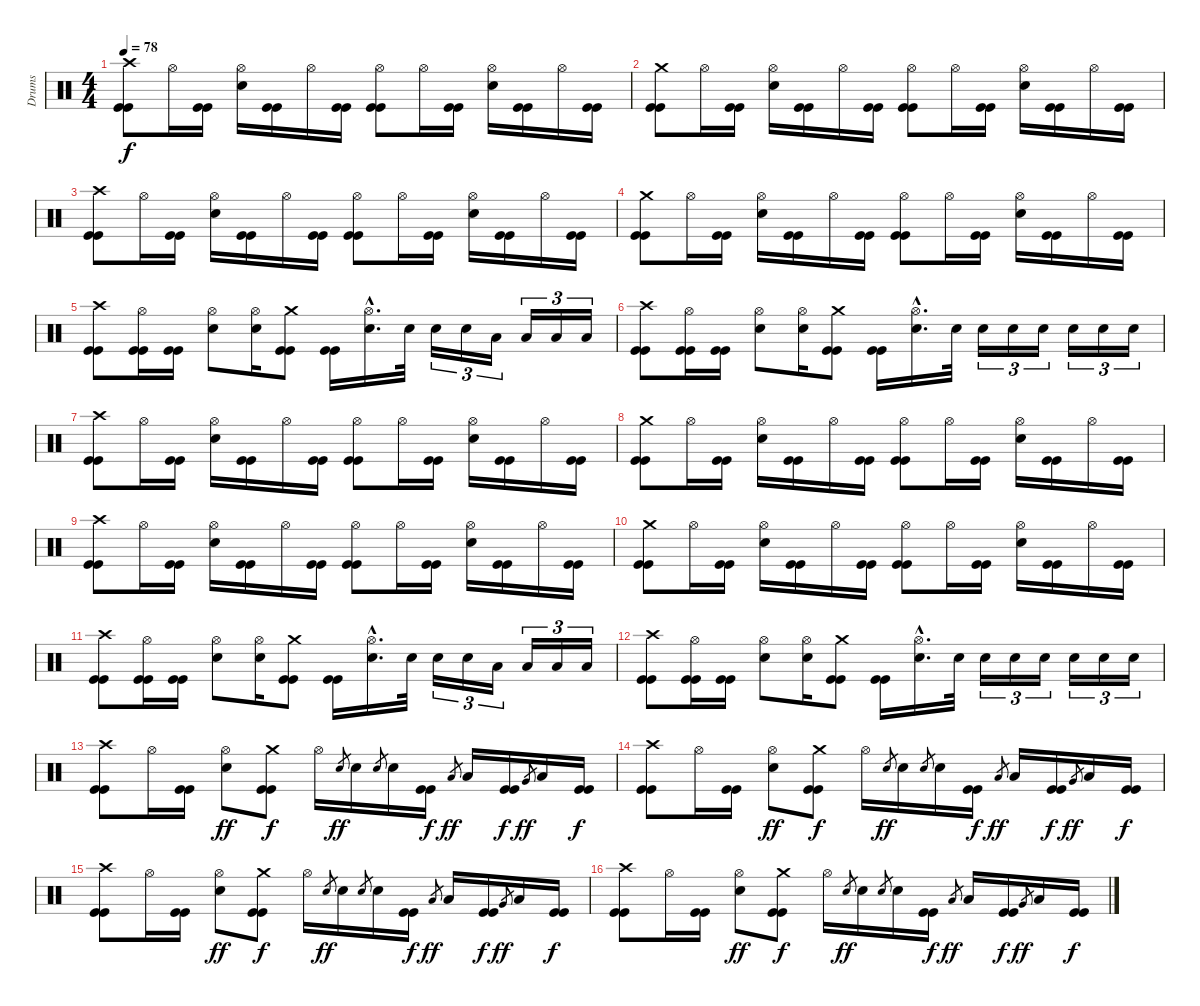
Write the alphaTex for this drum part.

\track ("Drums" "Drums") {instrument percussion}
\staff {score}
\articulation defaults
\ts (4 4)
\tempo 78
\clef neutral
\ks c
("Crash high (hit)" "Kick (hit)" "Kick (hit)").8{dy f} "Hi-Hat (open)".16 ("Kick (hit)" "Kick (hit)").16 ("Hi-Hat (open)" "Electric Snare (hit)").16 ("Kick (hit)" "Kick (hit)").16 "Hi-Hat (open)".16 ("Kick (hit)" "Kick (hit)").16 ("Hi-Hat (open)" "Kick (hit)" "Kick (hit)").8 "Hi-Hat (open)".16 ("Kick (hit)" "Kick (hit)").16 ("Hi-Hat (open)" "Electric Snare (hit)").16 ("Kick (hit)" "Kick (hit)").16 "Hi-Hat (open)".16 ("Kick (hit)" "Kick (hit)").16 |
("Crash medium (hit)" "Kick (hit)" "Kick (hit)").8 "Hi-Hat (open)".16 ("Kick (hit)" "Kick (hit)").16 ("Hi-Hat (open)" "Electric Snare (hit)").16 ("Kick (hit)" "Kick (hit)").16 "Hi-Hat (open)".16 ("Kick (hit)" "Kick (hit)").16 ("Hi-Hat (open)" "Kick (hit)" "Kick (hit)").8 "Hi-Hat (open)".16 ("Kick (hit)" "Kick (hit)").16 ("Hi-Hat (open)" "Electric Snare (hit)").16 ("Kick (hit)" "Kick (hit)").16 "Hi-Hat (open)".16 ("Kick (hit)" "Kick (hit)").16 |
("Crash high (hit)" "Kick (hit)" "Kick (hit)").8 "Hi-Hat (open)".16 ("Kick (hit)" "Kick (hit)").16 ("Hi-Hat (open)" "Electric Snare (hit)").16 ("Kick (hit)" "Kick (hit)").16 "Hi-Hat (open)".16 ("Kick (hit)" "Kick (hit)").16 ("Hi-Hat (open)" "Kick (hit)" "Kick (hit)").8 "Hi-Hat (open)".16 ("Kick (hit)" "Kick (hit)").16 ("Hi-Hat (open)" "Electric Snare (hit)").16 ("Kick (hit)" "Kick (hit)").16 "Hi-Hat (open)".16 ("Kick (hit)" "Kick (hit)").16 |
("Crash medium (hit)" "Kick (hit)" "Kick (hit)").8 "Hi-Hat (open)".16 ("Kick (hit)" "Kick (hit)").16 ("Hi-Hat (open)" "Electric Snare (hit)").16 ("Kick (hit)" "Kick (hit)").16 "Hi-Hat (open)".16 ("Kick (hit)" "Kick (hit)").16 ("Hi-Hat (open)" "Kick (hit)" "Kick (hit)").8 "Hi-Hat (open)".16 ("Kick (hit)" "Kick (hit)").16 ("Hi-Hat (open)" "Electric Snare (hit)").16 ("Kick (hit)" "Kick (hit)").16 "Hi-Hat (open)".16 ("Kick (hit)" "Kick (hit)").16 |
("Crash high (hit)" "Kick (hit)" "Kick (hit)").8 ("Hi-Hat (open)" "Kick (hit)" "Kick (hit)").16 ("Kick (hit)" "Kick (hit)").16 ("Hi-Hat (open)" "Electric Snare (hit)").8 ("Hi-Hat (open)" "Electric Snare (hit)").16 ("Crash medium (hit)" "Kick (hit)" "Kick (hit)").8 ("Kick (hit)" "Kick (hit)").16 ("Hi-Hat (open)"{hac} "Electric Snare (hit)"{hac}).16{d} "Electric Snare (hit)".32 "Electric Snare (hit)".16{tu (3 2)} "Electric Snare (hit)".16{tu (3 2)} "Low Tom (hit)".16{tu (3 2)} "Low Floor Tom (hit)".16{tu (3 2)} "Low Floor Tom (hit)".16{tu (3 2)} "Low Floor Tom (hit)".16{tu (3 2)} |
("Crash high (hit)" "Kick (hit)" "Kick (hit)").8 ("Hi-Hat (open)" "Kick (hit)" "Kick (hit)").16 ("Kick (hit)" "Kick (hit)").16 ("Hi-Hat (open)" "Electric Snare (hit)").8 ("Hi-Hat (open)" "Electric Snare (hit)").16 ("Crash medium (hit)" "Kick (hit)" "Kick (hit)").8 ("Kick (hit)" "Kick (hit)").16 ("Hi-Hat (open)"{hac} "Electric Snare (hit)"{hac}).16{d} "Electric Snare (hit)".32 "Electric Snare (hit)".16{tu (3 2)} "Electric Snare (hit)".16{tu (3 2)} "Electric Snare (hit)".16{tu (3 2)} "Electric Snare (hit)".16{tu (3 2)} "Electric Snare (hit)".16{tu (3 2)} "Electric Snare (hit)".16{tu (3 2)} |
("Crash high (hit)" "Kick (hit)" "Kick (hit)").8 "Hi-Hat (open)".16 ("Kick (hit)" "Kick (hit)").16 ("Hi-Hat (open)" "Electric Snare (hit)").16 ("Kick (hit)" "Kick (hit)").16 "Hi-Hat (open)".16 ("Kick (hit)" "Kick (hit)").16 ("Hi-Hat (open)" "Kick (hit)" "Kick (hit)").8 "Hi-Hat (open)".16 ("Kick (hit)" "Kick (hit)").16 ("Hi-Hat (open)" "Electric Snare (hit)").16 ("Kick (hit)" "Kick (hit)").16 "Hi-Hat (open)".16 ("Kick (hit)" "Kick (hit)").16 |
("Crash medium (hit)" "Kick (hit)" "Kick (hit)").8 "Hi-Hat (open)".16 ("Kick (hit)" "Kick (hit)").16 ("Hi-Hat (open)" "Electric Snare (hit)").16 ("Kick (hit)" "Kick (hit)").16 "Hi-Hat (open)".16 ("Kick (hit)" "Kick (hit)").16 ("Hi-Hat (open)" "Kick (hit)" "Kick (hit)").8 "Hi-Hat (open)".16 ("Kick (hit)" "Kick (hit)").16 ("Hi-Hat (open)" "Electric Snare (hit)").16 ("Kick (hit)" "Kick (hit)").16 "Hi-Hat (open)".16 ("Kick (hit)" "Kick (hit)").16 |
("Crash high (hit)" "Kick (hit)" "Kick (hit)").8 "Hi-Hat (open)".16 ("Kick (hit)" "Kick (hit)").16 ("Hi-Hat (open)" "Electric Snare (hit)").16 ("Kick (hit)" "Kick (hit)").16 "Hi-Hat (open)".16 ("Kick (hit)" "Kick (hit)").16 ("Hi-Hat (open)" "Kick (hit)" "Kick (hit)").8 "Hi-Hat (open)".16 ("Kick (hit)" "Kick (hit)").16 ("Hi-Hat (open)" "Electric Snare (hit)").16 ("Kick (hit)" "Kick (hit)").16 "Hi-Hat (open)".16 ("Kick (hit)" "Kick (hit)").16 |
("Crash medium (hit)" "Kick (hit)" "Kick (hit)").8 "Hi-Hat (open)".16 ("Kick (hit)" "Kick (hit)").16 ("Hi-Hat (open)" "Electric Snare (hit)").16 ("Kick (hit)" "Kick (hit)").16 "Hi-Hat (open)".16 ("Kick (hit)" "Kick (hit)").16 ("Hi-Hat (open)" "Kick (hit)" "Kick (hit)").8 "Hi-Hat (open)".16 ("Kick (hit)" "Kick (hit)").16 ("Hi-Hat (open)" "Electric Snare (hit)").16 ("Kick (hit)" "Kick (hit)").16 "Hi-Hat (open)".16 ("Kick (hit)" "Kick (hit)").16 |
("Crash high (hit)" "Kick (hit)" "Kick (hit)").8 ("Hi-Hat (open)" "Kick (hit)" "Kick (hit)").16 ("Kick (hit)" "Kick (hit)").16 ("Hi-Hat (open)" "Electric Snare (hit)").8 ("Hi-Hat (open)" "Electric Snare (hit)").16 ("Crash medium (hit)" "Kick (hit)" "Kick (hit)").8 ("Kick (hit)" "Kick (hit)").16 ("Hi-Hat (open)"{hac} "Electric Snare (hit)"{hac}).16{d} "Electric Snare (hit)".32 "Electric Snare (hit)".16{tu (3 2)} "Electric Snare (hit)".16{tu (3 2)} "Low Tom (hit)".16{tu (3 2)} "Low Floor Tom (hit)".16{tu (3 2)} "Low Floor Tom (hit)".16{tu (3 2)} "Low Floor Tom (hit)".16{tu (3 2)} |
("Crash high (hit)" "Kick (hit)" "Kick (hit)").8 ("Hi-Hat (open)" "Kick (hit)" "Kick (hit)").16 ("Kick (hit)" "Kick (hit)").16 ("Hi-Hat (open)" "Electric Snare (hit)").8 ("Hi-Hat (open)" "Electric Snare (hit)").16 ("Crash medium (hit)" "Kick (hit)" "Kick (hit)").8 ("Kick (hit)" "Kick (hit)").16 ("Hi-Hat (open)"{hac} "Electric Snare (hit)"{hac}).16{d} "Electric Snare (hit)".32 "Electric Snare (hit)".16{tu (3 2)} "Electric Snare (hit)".16{tu (3 2)} "Electric Snare (hit)".16{tu (3 2)} "Electric Snare (hit)".16{tu (3 2)} "Electric Snare (hit)".16{tu (3 2)} "Electric Snare (hit)".16{tu (3 2)} |
("Crash high (hit)" "Kick (hit)" "Kick (hit)").8 "Hi-Hat (open)".16 ("Kick (hit)" "Kick (hit)").16 ("Hi-Hat (open)" "Electric Snare (hit)").8{dy ff} ("Crash medium (hit)" "Kick (hit)" "Kick (hit)").8{dy f} "Hi-Hat (open)".16 "Electric Snare (hit)".8{gr dy ff} "Electric Snare (hit)".16 "Electric Snare (hit)".8{gr} "Electric Snare (hit)".16 ("Kick (hit)" "Kick (hit)").16{dy f} "Low Tom (hit)".8{gr dy ff} "Low Tom (hit)".16 ("Kick (hit)" "Kick (hit)").16{dy f} "Very Low Tom (hit)".8{gr dy ff} "Low Floor Tom (hit)".16 ("Kick (hit)" "Kick (hit)").16{dy f} |
("Crash high (hit)" "Kick (hit)" "Kick (hit)").8 "Hi-Hat (open)".16 ("Kick (hit)" "Kick (hit)").16 ("Hi-Hat (open)" "Electric Snare (hit)").8{dy ff} ("Crash medium (hit)" "Kick (hit)" "Kick (hit)").8{dy f} "Hi-Hat (open)".16 "Electric Snare (hit)".8{gr dy ff} "Electric Snare (hit)".16 "Electric Snare (hit)".8{gr} "Electric Snare (hit)".16 ("Kick (hit)" "Kick (hit)").16{dy f} "Low Tom (hit)".8{gr dy ff} "Low Tom (hit)".16 ("Kick (hit)" "Kick (hit)").16{dy f} "Very Low Tom (hit)".8{gr dy ff} "Low Floor Tom (hit)".16 ("Kick (hit)" "Kick (hit)").16{dy f} |
("Crash high (hit)" "Kick (hit)" "Kick (hit)").8 "Hi-Hat (open)".16 ("Kick (hit)" "Kick (hit)").16 ("Hi-Hat (open)" "Electric Snare (hit)").8{dy ff} ("Crash medium (hit)" "Kick (hit)" "Kick (hit)").8{dy f} "Hi-Hat (open)".16 "Electric Snare (hit)".8{gr dy ff} "Electric Snare (hit)".16 "Electric Snare (hit)".8{gr} "Electric Snare (hit)".16 ("Kick (hit)" "Kick (hit)").16{dy f} "Low Tom (hit)".8{gr dy ff} "Low Tom (hit)".16 ("Kick (hit)" "Kick (hit)").16{dy f} "Very Low Tom (hit)".8{gr dy ff} "Low Floor Tom (hit)".16 ("Kick (hit)" "Kick (hit)").16{dy f} |
("Crash high (hit)" "Kick (hit)" "Kick (hit)").8 "Hi-Hat (open)".16 ("Kick (hit)" "Kick (hit)").16 ("Hi-Hat (open)" "Electric Snare (hit)").8{dy ff} ("Crash medium (hit)" "Kick (hit)" "Kick (hit)").8{dy f} "Hi-Hat (open)".16 "Electric Snare (hit)".8{gr dy ff} "Electric Snare (hit)".16 "Electric Snare (hit)".8{gr} "Electric Snare (hit)".16 ("Kick (hit)" "Kick (hit)").16{dy f} "Low Tom (hit)".8{gr dy ff} "Low Tom (hit)".16 ("Kick (hit)" "Kick (hit)").16{dy f} "Very Low Tom (hit)".8{gr dy ff} "Low Floor Tom (hit)".16 ("Kick (hit)" "Kick (hit)").16{dy f}
